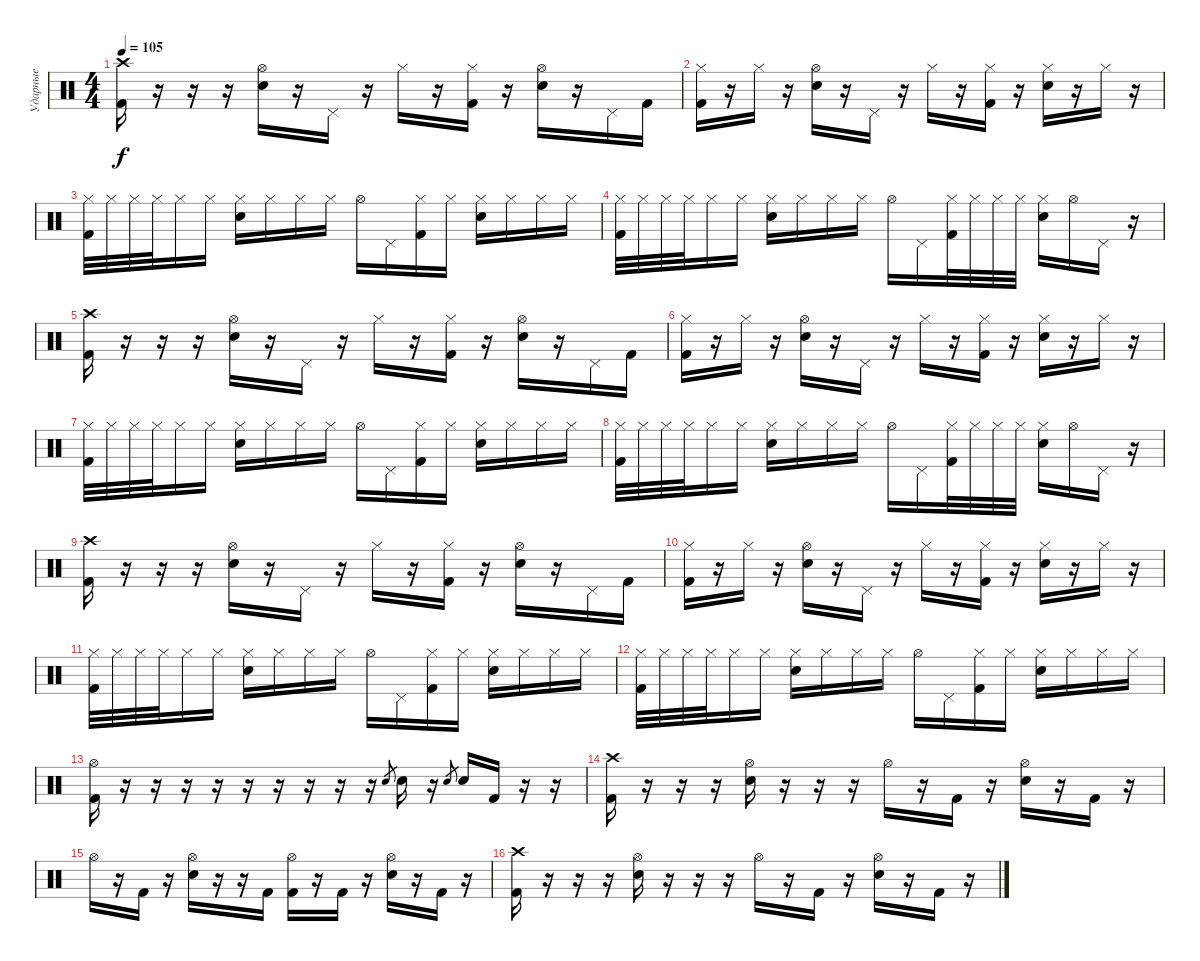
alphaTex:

\track ("Ударные" "Ударные") {instrument percussion}
\staff {score}
\articulation defaults
\ts (4 4)
\tempo 105
\clef neutral
\ks c
("Crash high (hit)" "Kick (hit) 2").16{dy f} r.16 r.16 r.16 ("Hi-Hat (open)" "Electric Snare (hit)").16 r.16 "Pedal Hi-Hat (hit)".16 r.16 "Hi-Hat (closed)".16 r.16 ("Hi-Hat (closed)" "Kick (hit) 2").16 r.16 ("Hi-Hat (open)" "Electric Snare (hit)").16 r.16 "Pedal Hi-Hat (hit)".16 "Kick (hit) 2".16 |
("Hi-Hat (closed)" "Kick (hit) 2").16 r.16 "Hi-Hat (closed)".16 r.16 ("Hi-Hat (open)" "Electric Snare (hit)").16 r.16 "Pedal Hi-Hat (hit)".16 r.16 "Hi-Hat (closed)".16 r.16 ("Hi-Hat (closed)" "Kick (hit) 2").16 r.16 ("Hi-Hat (closed)" "Electric Snare (hit)").16 r.16 "Hi-Hat (closed)".16 r.16 |
("Hi-Hat (closed)" "Kick (hit) 2").32 "Hi-Hat (closed)".32 "Hi-Hat (closed)".32 "Hi-Hat (closed)".32 "Hi-Hat (closed)".16 "Hi-Hat (closed)".16 ("Hi-Hat (closed)" "Electric Snare (hit)").16 "Hi-Hat (closed)".16 "Hi-Hat (closed)".16 "Hi-Hat (closed)".16 "Hi-Hat (open)".16 "Pedal Hi-Hat (hit)".16 ("Hi-Hat (closed)" "Kick (hit) 2").16 "Hi-Hat (closed)".16 ("Hi-Hat (closed)" "Electric Snare (hit)").16 "Hi-Hat (closed)".16 "Hi-Hat (closed)".16 "Hi-Hat (closed)".16 |
("Hi-Hat (closed)" "Kick (hit) 2").32 "Hi-Hat (closed)".32 "Hi-Hat (closed)".32 "Hi-Hat (closed)".32 "Hi-Hat (closed)".16 "Hi-Hat (closed)".16 ("Hi-Hat (closed)" "Electric Snare (hit)").16 "Hi-Hat (closed)".16 "Hi-Hat (closed)".16 "Hi-Hat (closed)".16 "Hi-Hat (open)".16 "Pedal Hi-Hat (hit)".16 ("Hi-Hat (closed)" "Kick (hit) 2").32 "Hi-Hat (closed)".32 "Hi-Hat (closed)".32 "Hi-Hat (closed)".32 ("Hi-Hat (closed)" "Electric Snare (hit)").16 "Hi-Hat (open)".16 "Pedal Hi-Hat (hit)".16 r.16 |
("Crash high (hit)" "Kick (hit) 2").16 r.16 r.16 r.16 ("Hi-Hat (open)" "Electric Snare (hit)").16 r.16 "Pedal Hi-Hat (hit)".16 r.16 "Hi-Hat (closed)".16 r.16 ("Hi-Hat (closed)" "Kick (hit) 2").16 r.16 ("Hi-Hat (open)" "Electric Snare (hit)").16 r.16 "Pedal Hi-Hat (hit)".16 "Kick (hit) 2".16 |
("Hi-Hat (closed)" "Kick (hit) 2").16 r.16 "Hi-Hat (closed)".16 r.16 ("Hi-Hat (open)" "Electric Snare (hit)").16 r.16 "Pedal Hi-Hat (hit)".16 r.16 "Hi-Hat (closed)".16 r.16 ("Hi-Hat (closed)" "Kick (hit) 2").16 r.16 ("Hi-Hat (closed)" "Electric Snare (hit)").16 r.16 "Hi-Hat (closed)".16 r.16 |
("Hi-Hat (closed)" "Kick (hit) 2").32 "Hi-Hat (closed)".32 "Hi-Hat (closed)".32 "Hi-Hat (closed)".32 "Hi-Hat (closed)".16 "Hi-Hat (closed)".16 ("Hi-Hat (closed)" "Electric Snare (hit)").16 "Hi-Hat (closed)".16 "Hi-Hat (closed)".16 "Hi-Hat (closed)".16 "Hi-Hat (open)".16 "Pedal Hi-Hat (hit)".16 ("Hi-Hat (closed)" "Kick (hit) 2").16 "Hi-Hat (closed)".16 ("Hi-Hat (closed)" "Electric Snare (hit)").16 "Hi-Hat (closed)".16 "Hi-Hat (closed)".16 "Hi-Hat (closed)".16 |
("Hi-Hat (closed)" "Kick (hit) 2").32 "Hi-Hat (closed)".32 "Hi-Hat (closed)".32 "Hi-Hat (closed)".32 "Hi-Hat (closed)".16 "Hi-Hat (closed)".16 ("Hi-Hat (closed)" "Electric Snare (hit)").16 "Hi-Hat (closed)".16 "Hi-Hat (closed)".16 "Hi-Hat (closed)".16 "Hi-Hat (open)".16 "Pedal Hi-Hat (hit)".16 ("Hi-Hat (closed)" "Kick (hit) 2").32 "Hi-Hat (closed)".32 "Hi-Hat (closed)".32 "Hi-Hat (closed)".32 ("Hi-Hat (closed)" "Electric Snare (hit)").16 "Hi-Hat (open)".16 "Pedal Hi-Hat (hit)".16 r.16 |
("Crash high (hit)" "Kick (hit) 2").16 r.16 r.16 r.16 ("Hi-Hat (open)" "Electric Snare (hit)").16 r.16 "Pedal Hi-Hat (hit)".16 r.16 "Hi-Hat (closed)".16 r.16 ("Hi-Hat (closed)" "Kick (hit) 2").16 r.16 ("Hi-Hat (open)" "Electric Snare (hit)").16 r.16 "Pedal Hi-Hat (hit)".16 "Kick (hit) 2".16 |
("Hi-Hat (closed)" "Kick (hit) 2").16 r.16 "Hi-Hat (closed)".16 r.16 ("Hi-Hat (open)" "Electric Snare (hit)").16 r.16 "Pedal Hi-Hat (hit)".16 r.16 "Hi-Hat (closed)".16 r.16 ("Hi-Hat (closed)" "Kick (hit) 2").16 r.16 ("Hi-Hat (closed)" "Electric Snare (hit)").16 r.16 "Hi-Hat (closed)".16 r.16 |
("Hi-Hat (closed)" "Kick (hit) 2").32 "Hi-Hat (closed)".32 "Hi-Hat (closed)".32 "Hi-Hat (closed)".32 "Hi-Hat (closed)".16 "Hi-Hat (closed)".16 ("Hi-Hat (closed)" "Electric Snare (hit)").16 "Hi-Hat (closed)".16 "Hi-Hat (closed)".16 "Hi-Hat (closed)".16 "Hi-Hat (open)".16 "Pedal Hi-Hat (hit)".16 ("Hi-Hat (closed)" "Kick (hit) 2").16 "Hi-Hat (closed)".16 ("Hi-Hat (closed)" "Electric Snare (hit)").16 "Hi-Hat (closed)".16 "Hi-Hat (closed)".16 "Hi-Hat (closed)".16 |
("Hi-Hat (closed)" "Kick (hit) 2").32 "Hi-Hat (closed)".32 "Hi-Hat (closed)".32 "Hi-Hat (closed)".32 "Hi-Hat (closed)".16 "Hi-Hat (closed)".16 ("Hi-Hat (closed)" "Electric Snare (hit)").16 "Hi-Hat (closed)".16 "Hi-Hat (closed)".16 "Hi-Hat (closed)".16 "Hi-Hat (open)".16 "Pedal Hi-Hat (hit)".16 ("Hi-Hat (closed)" "Kick (hit) 2").16 "Hi-Hat (closed)".16 ("Hi-Hat (closed)" "Electric Snare (hit)").16 "Hi-Hat (closed)".16 "Hi-Hat (closed)".16 "Hi-Hat (closed)".16 |
("Hi-Hat (open)" "Kick (hit) 2").16 r.16 r.16 r.16 r.16 r.16 r.16 r.16 r.16 r.16 "Electric Snare (hit)".8{gr} "Electric Snare (hit)".16 r.16 "Electric Snare (hit)".8{gr} "Electric Snare (hit)".16 "Kick (hit) 2".16 r.16 r.16 |
("Crash high (hit)" "Kick (hit) 2").16 r.16 r.16 r.16 ("Hi-Hat (open)" "Electric Snare (hit)").16 r.16 r.16 r.16 "Hi-Hat (open)".16 r.16 "Kick (hit) 2".16 r.16 ("Hi-Hat (open)" "Electric Snare (hit)").16 r.16 "Kick (hit) 2".16 r.16 |
"Hi-Hat (open)".16 r.16 "Kick (hit) 2".16 r.16 ("Hi-Hat (open)" "Electric Snare (hit)").16 r.16 r.16 "Kick (hit) 2".16 ("Hi-Hat (open)" "Kick (hit) 2").16 r.16 "Kick (hit) 2".16 r.16 ("Hi-Hat (open)" "Electric Snare (hit)").16 r.16 "Kick (hit) 2".16 r.16 |
("Crash high (hit)" "Kick (hit) 2").16 r.16 r.16 r.16 ("Hi-Hat (open)" "Electric Snare (hit)").16 r.16 r.16 r.16 "Hi-Hat (open)".16 r.16 "Kick (hit) 2".16 r.16 ("Hi-Hat (open)" "Electric Snare (hit)").16 r.16 "Kick (hit) 2".16 r.16
